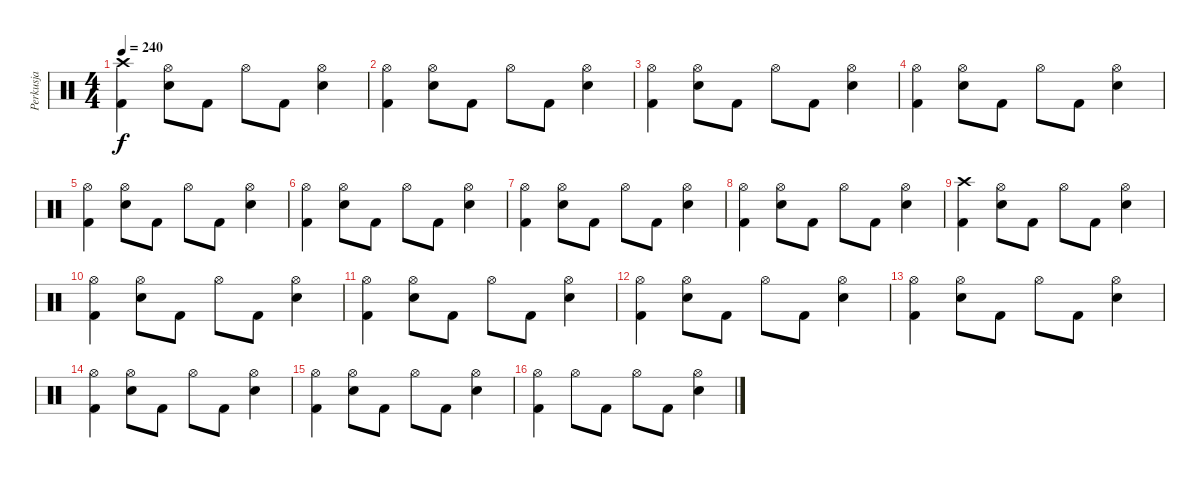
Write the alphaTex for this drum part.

\track ("Perkusja" "Perkusja") {instrument percussion}
\staff {score}
\articulation defaults
\ts (4 4)
\tempo 240
\clef neutral
\ks c
("Crash high (hit)" "Kick (hit) 2").4{dy f} ("Hi-Hat (open)" "Electric Snare (hit)").8 "Kick (hit) 2".8 "Hi-Hat (open)".8 "Kick (hit) 2".8 ("Hi-Hat (open)" "Electric Snare (hit)").4 |
("Hi-Hat (open)" "Kick (hit) 2").4 ("Hi-Hat (open)" "Electric Snare (hit)").8 "Kick (hit) 2".8 "Hi-Hat (open)".8 "Kick (hit) 2".8 ("Hi-Hat (open)" "Electric Snare (hit)").4 |
("Hi-Hat (open)" "Kick (hit) 2").4 ("Hi-Hat (open)" "Electric Snare (hit)").8 "Kick (hit) 2".8 "Hi-Hat (open)".8 "Kick (hit) 2".8 ("Hi-Hat (open)" "Electric Snare (hit)").4 |
("Hi-Hat (open)" "Kick (hit) 2").4 ("Hi-Hat (open)" "Electric Snare (hit)").8 "Kick (hit) 2".8 "Hi-Hat (open)".8 "Kick (hit) 2".8 ("Hi-Hat (open)" "Electric Snare (hit)").4 |
("Hi-Hat (open)" "Kick (hit) 2").4 ("Hi-Hat (open)" "Electric Snare (hit)").8 "Kick (hit) 2".8 "Hi-Hat (open)".8 "Kick (hit) 2".8 ("Hi-Hat (open)" "Electric Snare (hit)").4 |
("Hi-Hat (open)" "Kick (hit) 2").4 ("Hi-Hat (open)" "Electric Snare (hit)").8 "Kick (hit) 2".8 "Hi-Hat (open)".8 "Kick (hit) 2".8 ("Hi-Hat (open)" "Electric Snare (hit)").4 |
("Hi-Hat (open)" "Kick (hit) 2").4 ("Hi-Hat (open)" "Electric Snare (hit)").8 "Kick (hit) 2".8 "Hi-Hat (open)".8 "Kick (hit) 2".8 ("Hi-Hat (open)" "Electric Snare (hit)").4 |
("Hi-Hat (open)" "Kick (hit) 2").4 ("Hi-Hat (open)" "Electric Snare (hit)").8 "Kick (hit) 2".8 "Hi-Hat (open)".8 "Kick (hit) 2".8 ("Hi-Hat (open)" "Electric Snare (hit)").4 |
("Crash high (hit)" "Kick (hit) 2").4 ("Hi-Hat (open)" "Electric Snare (hit)").8 "Kick (hit) 2".8 "Hi-Hat (open)".8 "Kick (hit) 2".8 ("Hi-Hat (open)" "Electric Snare (hit)").4 |
("Hi-Hat (open)" "Kick (hit) 2").4 ("Hi-Hat (open)" "Electric Snare (hit)").8 "Kick (hit) 2".8 "Hi-Hat (open)".8 "Kick (hit) 2".8 ("Hi-Hat (open)" "Electric Snare (hit)").4 |
("Hi-Hat (open)" "Kick (hit) 2").4 ("Hi-Hat (open)" "Electric Snare (hit)").8 "Kick (hit) 2".8 "Hi-Hat (open)".8 "Kick (hit) 2".8 ("Hi-Hat (open)" "Electric Snare (hit)").4 |
("Hi-Hat (open)" "Kick (hit) 2").4 ("Hi-Hat (open)" "Electric Snare (hit)").8 "Kick (hit) 2".8 "Hi-Hat (open)".8 "Kick (hit) 2".8 ("Hi-Hat (open)" "Electric Snare (hit)").4 |
("Hi-Hat (open)" "Kick (hit) 2").4 ("Hi-Hat (open)" "Electric Snare (hit)").8 "Kick (hit) 2".8 "Hi-Hat (open)".8 "Kick (hit) 2".8 ("Hi-Hat (open)" "Electric Snare (hit)").4 |
("Hi-Hat (open)" "Kick (hit) 2").4 ("Hi-Hat (open)" "Electric Snare (hit)").8 "Kick (hit) 2".8 "Hi-Hat (open)".8 "Kick (hit) 2".8 ("Hi-Hat (open)" "Electric Snare (hit)").4 |
("Hi-Hat (open)" "Kick (hit) 2").4 ("Hi-Hat (open)" "Electric Snare (hit)").8 "Kick (hit) 2".8 "Hi-Hat (open)".8 "Kick (hit) 2".8 ("Hi-Hat (open)" "Electric Snare (hit)").4 |
("Hi-Hat (open)" "Kick (hit) 2").4 "Hi-Hat (open)".8 "Kick (hit) 2".8 "Hi-Hat (open)".8 "Kick (hit) 2".8 ("Hi-Hat (open)" "Electric Snare (hit)").4
